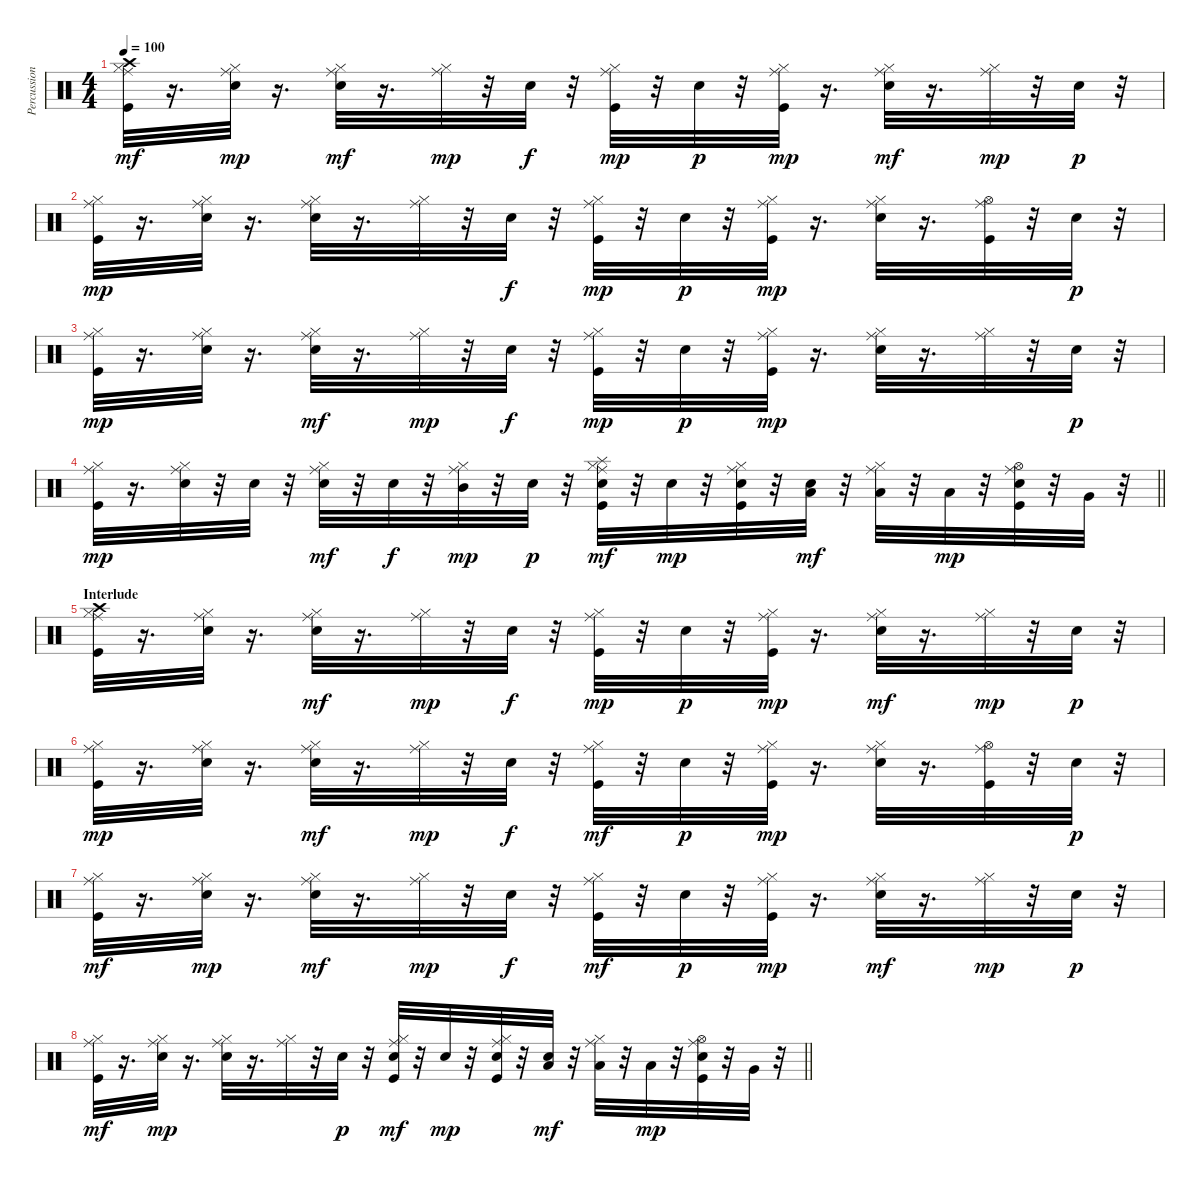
\track ("Percussions" "Percussion") {instrument percussion}
\staff {score}
\articulation defaults
\ts (4 4)
\tempo 100
\clef neutral
\ks c
("Kick (hit)" "Hi-Hat (closed)" "Crash high (hit)" "Ride (middle)").32{dy mf} r.16{d} ("Electric Snare (hit)" "Hi-Hat (closed)" "Ride (middle)").32{dy mp} r.16{d} ("Electric Snare (hit)" "Hi-Hat (closed)" "Ride (middle)").32{dy mf} r.16{d} ("Hi-Hat (closed)" "Ride (middle)").32{dy mp} r.32 "Electric Snare (hit)".32{dy f} r.32 ("Kick (hit)" "Hi-Hat (closed)" "Ride (middle)").32{dy mp} r.32 "Electric Snare (hit)".32{dy p} r.32 ("Kick (hit)" "Hi-Hat (closed)" "Ride (middle)").32{dy mp} r.16{d} ("Electric Snare (hit)" "Hi-Hat (closed)" "Ride (middle)").32{dy mf} r.16{d} ("Hi-Hat (closed)" "Ride (middle)").32{dy mp} r.32 "Electric Snare (hit)".32{dy p} r.32 |
("Kick (hit)" "Hi-Hat (closed)" "Ride (middle)").32{dy mp} r.16{d} ("Electric Snare (hit)" "Hi-Hat (closed)" "Ride (middle)").32 r.16{d} ("Electric Snare (hit)" "Hi-Hat (closed)" "Ride (middle)").32 r.16{d} ("Hi-Hat (closed)" "Ride (middle)").32 r.32 "Electric Snare (hit)".32{dy f} r.32 ("Kick (hit)" "Hi-Hat (closed)" "Ride (middle)").32{dy mp} r.32 "Electric Snare (hit)".32{dy p} r.32 ("Kick (hit)" "Hi-Hat (closed)" "Ride (middle)").32{dy mp} r.16{d} ("Electric Snare (hit)" "Hi-Hat (closed)" "Ride (middle)").32 r.16{d} ("Kick (hit)" "Hi-Hat (open)" "Ride (middle)").32 r.32 "Electric Snare (hit)".32{dy p} r.32 |
("Kick (hit)" "Hi-Hat (closed)" "Ride (middle)").32{dy mp} r.16{d} ("Electric Snare (hit)" "Hi-Hat (closed)" "Ride (middle)").32 r.16{d} ("Electric Snare (hit)" "Hi-Hat (closed)" "Ride (middle)").32{dy mf} r.16{d} ("Hi-Hat (closed)" "Ride (middle)").32{dy mp} r.32 "Electric Snare (hit)".32{dy f} r.32 ("Kick (hit)" "Hi-Hat (closed)" "Ride (middle)").32{dy mp} r.32 "Electric Snare (hit)".32{dy p} r.32 ("Kick (hit)" "Hi-Hat (closed)" "Ride (middle)").32{dy mp} r.16{d} ("Electric Snare (hit)" "Hi-Hat (closed)" "Ride (middle)").32 r.16{d} ("Hi-Hat (closed)" "Ride (middle)").32 r.32 "Electric Snare (hit)".32{dy p} r.32 |
\barLineRight lightlight
("Kick (hit)" "Hi-Hat (closed)" "Ride (middle)").32{dy mp} r.16{d} ("Electric Snare (hit)" "Hi-Hat (closed)" "Ride (middle)").32 r.32 "Electric Snare (hit)".32 r.32 ("Electric Snare (hit)" "Hi-Hat (closed)" "Ride (middle)").32{dy mf} r.32 "Electric Snare (hit)".32{dy f} r.32 ("Hi-Hat (closed)" "Mid Tom (hit)" "Ride (middle)").32{dy mp} r.32 "Electric Snare (hit)".32{dy p} r.32 ("Kick (hit)" "Electric Snare (hit)" "Hi-Hat (closed)" "Ride (middle)" "Splash (hit)").32{dy mf} r.32 "Electric Snare (hit)".32{dy mp} r.32 ("Kick (hit)" "Electric Snare (hit)" "Hi-Hat (closed)" "Ride (middle)").32 r.32 ("Electric Snare (hit)" "Low Tom (hit)").32{dy mf} r.32 ("Hi-Hat (closed)" "Low Tom (hit)" "Ride (middle)").32 r.32 "Low Tom (hit)".32{dy mp} r.32 ("Kick (hit)" "Electric Snare (hit)" "Hi-Hat (open)" "Ride (middle)").32 r.32 "Very Low Tom (hit)".32 r.32 |
\section ("" "Interlude")
("Kick (hit)" "Hi-Hat (closed)" "Crash high (hit)" "Ride (middle)").32 r.16{d} ("Electric Snare (hit)" "Hi-Hat (closed)" "Ride (middle)").32 r.16{d} ("Electric Snare (hit)" "Hi-Hat (closed)" "Ride (middle)").32{dy mf} r.16{d} ("Hi-Hat (closed)" "Ride (middle)").32{dy mp} r.32 "Electric Snare (hit)".32{dy f} r.32 ("Kick (hit)" "Hi-Hat (closed)" "Ride (middle)").32{dy mp} r.32 "Electric Snare (hit)".32{dy p} r.32 ("Kick (hit)" "Hi-Hat (closed)" "Ride (middle)").32{dy mp} r.16{d} ("Electric Snare (hit)" "Hi-Hat (closed)" "Ride (middle)").32{dy mf} r.16{d} ("Hi-Hat (closed)" "Ride (middle)").32{dy mp} r.32 "Electric Snare (hit)".32{dy p} r.32 |
("Kick (hit)" "Hi-Hat (closed)" "Ride (middle)").32{dy mp} r.16{d} ("Electric Snare (hit)" "Hi-Hat (closed)" "Ride (middle)").32 r.16{d} ("Electric Snare (hit)" "Hi-Hat (closed)" "Ride (middle)").32{dy mf} r.16{d} ("Hi-Hat (closed)" "Ride (middle)").32{dy mp} r.32 "Electric Snare (hit)".32{dy f} r.32 ("Kick (hit)" "Hi-Hat (closed)" "Ride (middle)").32{dy mf} r.32 "Electric Snare (hit)".32{dy p} r.32 ("Kick (hit)" "Hi-Hat (closed)" "Ride (middle)").32{dy mp} r.16{d} ("Electric Snare (hit)" "Hi-Hat (closed)" "Ride (middle)").32 r.16{d} ("Kick (hit)" "Hi-Hat (open)" "Ride (middle)").32 r.32 "Electric Snare (hit)".32{dy p} r.32 |
("Kick (hit)" "Hi-Hat (closed)" "Ride (middle)").32{dy mf} r.16{d} ("Electric Snare (hit)" "Hi-Hat (closed)" "Ride (middle)").32{dy mp} r.16{d} ("Electric Snare (hit)" "Hi-Hat (closed)" "Ride (middle)").32{dy mf} r.16{d} ("Hi-Hat (closed)" "Ride (middle)").32{dy mp} r.32 "Electric Snare (hit)".32{dy f} r.32 ("Kick (hit)" "Hi-Hat (closed)" "Ride (middle)").32{dy mf} r.32 "Electric Snare (hit)".32{dy p} r.32 ("Kick (hit)" "Hi-Hat (closed)" "Ride (middle)").32{dy mp} r.16{d} ("Electric Snare (hit)" "Hi-Hat (closed)" "Ride (middle)").32{dy mf} r.16{d} ("Hi-Hat (closed)" "Ride (middle)").32{dy mp} r.32 "Electric Snare (hit)".32{dy p} r.32 |
\barLineRight lightlight
("Kick (hit)" "Hi-Hat (closed)" "Ride (middle)").32{dy mf} r.16{d} ("Electric Snare (hit)" "Hi-Hat (closed)" "Ride (middle)").32{dy mp} r.16{d} ("Electric Snare (hit)" "Hi-Hat (closed)" "Ride (middle)").32 r.16{d} ("Hi-Hat (closed)" "Ride (middle)").32 r.32 "Electric Snare (hit)".32{dy p} r.32 ("Kick (hit)" "Electric Snare (hit)" "Hi-Hat (closed)" "Ride (middle)").32{dy mf} r.32 "Electric Snare (hit)".32{dy mp} r.32 ("Kick (hit)" "Electric Snare (hit)" "Hi-Hat (closed)" "Ride (middle)").32 r.32 ("Electric Snare (hit)" "Low Tom (hit)").32{dy mf} r.32 ("Hi-Hat (closed)" "Low Tom (hit)" "Ride (middle)").32 r.32 "Low Tom (hit)".32{dy mp} r.32 ("Kick (hit)" "Electric Snare (hit)" "Hi-Hat (open)" "Ride (middle)").32 r.32 "Very Low Tom (hit)".32 r.32
